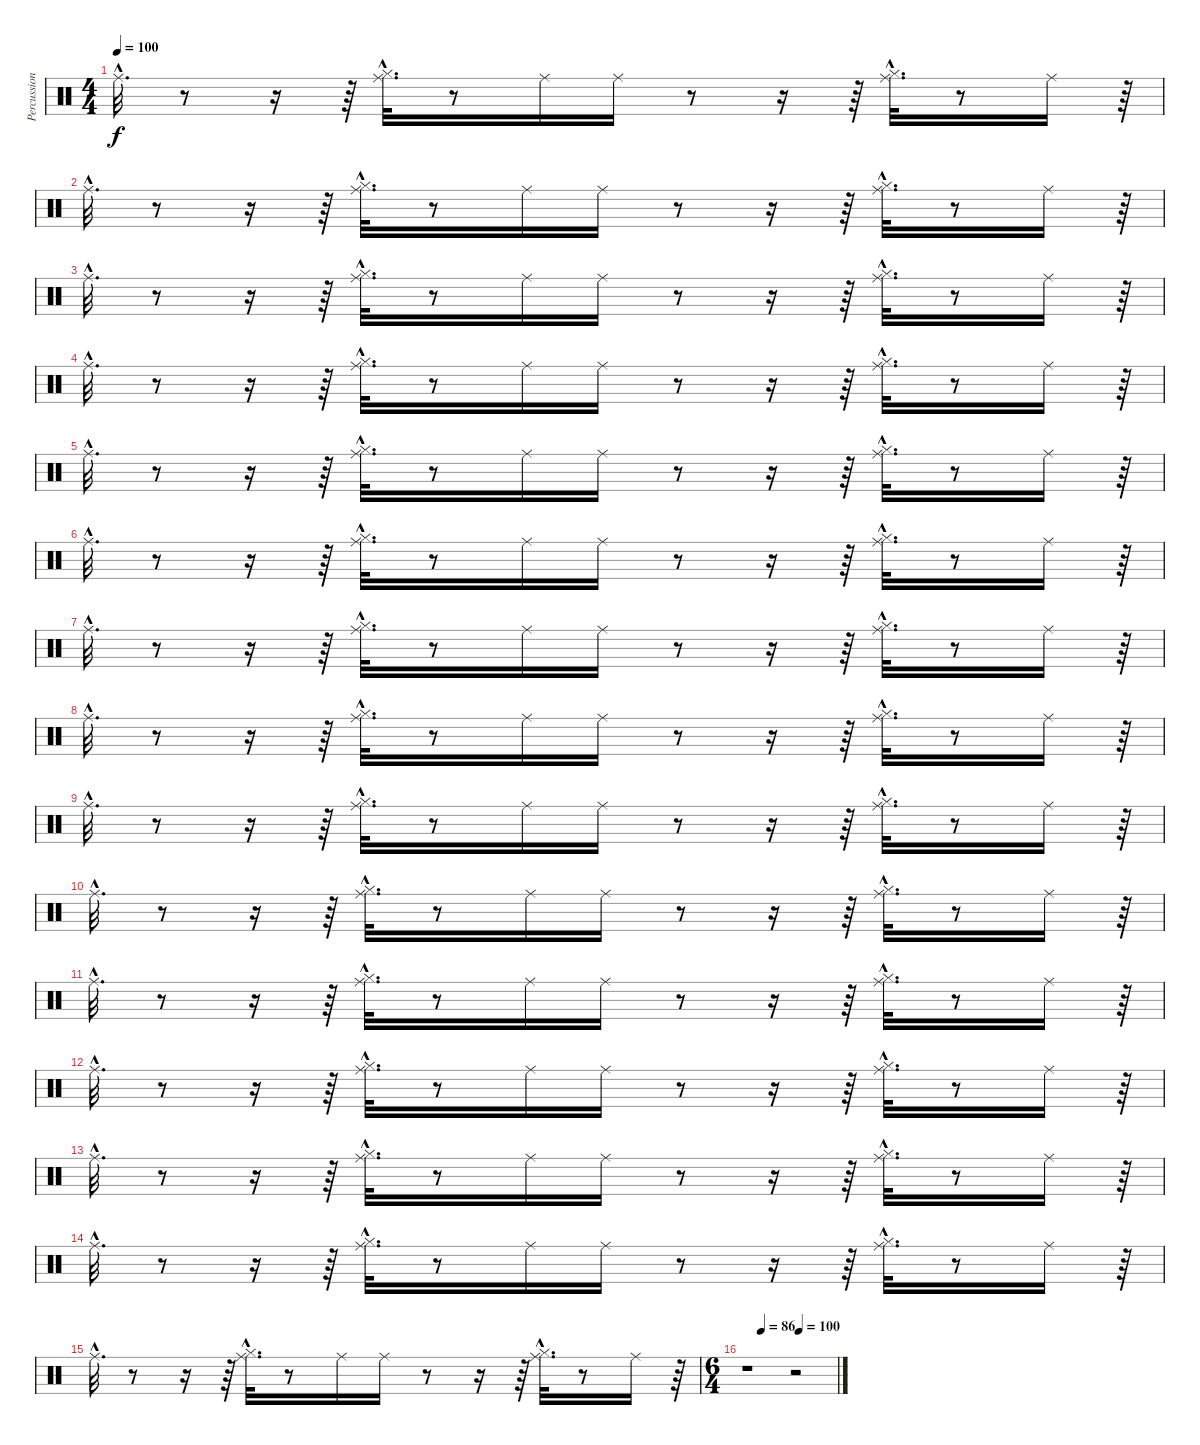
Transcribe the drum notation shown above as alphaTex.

\track ("Percussions" "Percussion") {instrument percussion}
\staff {score}
\articulation defaults
\ts (4 4)
\tempo 100
\clef neutral
\ks c "Ride (middle)"{hac}.32{d dy f}
r.8 r.16 r.64 ("Hi-Hat (closed)"{hac} "Ride (middle)"{hac}).32{d} r.8 "Ride (middle)".16 "Ride (middle)".16 r.8 r.16 r.64 ("Hi-Hat (closed)"{hac} "Ride (middle)"{hac}).32{d} r.8 "Ride (middle)".16 r.64 |
"Ride (middle)"{hac}.32{d} r.8 r.16 r.64 ("Hi-Hat (closed)"{hac} "Ride (middle)"{hac}).32{d} r.8 "Ride (middle)".16 "Ride (middle)".16 r.8 r.16 r.64 ("Hi-Hat (closed)"{hac} "Ride (middle)"{hac}).32{d} r.8 "Ride (middle)".16 r.64 |
"Ride (middle)"{hac}.32{d} r.8 r.16 r.64 ("Hi-Hat (closed)"{hac} "Ride (middle)"{hac}).32{d} r.8 "Ride (middle)".16 "Ride (middle)".16 r.8 r.16 r.64 ("Hi-Hat (closed)"{hac} "Ride (middle)"{hac}).32{d} r.8 "Ride (middle)".16 r.64 |
"Ride (middle)"{hac}.32{d} r.8 r.16 r.64 ("Hi-Hat (closed)"{hac} "Ride (middle)"{hac}).32{d} r.8 "Ride (middle)".16 "Ride (middle)".16 r.8 r.16 r.64 ("Hi-Hat (closed)"{hac} "Ride (middle)"{hac}).32{d} r.8 "Ride (middle)".16 r.64 |
"Ride (middle)"{hac}.32{d} r.8 r.16 r.64 ("Hi-Hat (closed)"{hac} "Ride (middle)"{hac}).32{d} r.8 "Ride (middle)".16 "Ride (middle)".16 r.8 r.16 r.64 ("Hi-Hat (closed)"{hac} "Ride (middle)"{hac}).32{d} r.8 "Ride (middle)".16 r.64 |
"Ride (middle)"{hac}.32{d} r.8 r.16 r.64 ("Hi-Hat (closed)"{hac} "Ride (middle)"{hac}).32{d} r.8 "Ride (middle)".16 "Ride (middle)".16 r.8 r.16 r.64 ("Hi-Hat (closed)"{hac} "Ride (middle)"{hac}).32{d} r.8 "Ride (middle)".16 r.64 |
"Ride (middle)"{hac}.32{d} r.8 r.16 r.64 ("Hi-Hat (closed)"{hac} "Ride (middle)"{hac}).32{d} r.8 "Ride (middle)".16 "Ride (middle)".16 r.8 r.16 r.64 ("Hi-Hat (closed)"{hac} "Ride (middle)"{hac}).32{d} r.8 "Ride (middle)".16 r.64 |
"Ride (middle)"{hac}.32{d} r.8 r.16 r.64 ("Hi-Hat (closed)"{hac} "Ride (middle)"{hac}).32{d} r.8 "Ride (middle)".16 "Ride (middle)".16 r.8 r.16 r.64 ("Hi-Hat (closed)"{hac} "Ride (middle)"{hac}).32{d} r.8 "Ride (middle)".16 r.64 |
"Ride (middle)"{hac}.32{d} r.8 r.16 r.64 ("Hi-Hat (closed)"{hac} "Ride (middle)"{hac}).32{d} r.8 "Ride (middle)".16 "Ride (middle)".16 r.8 r.16 r.64 ("Hi-Hat (closed)"{hac} "Ride (middle)"{hac}).32{d} r.8 "Ride (middle)".16 r.64 |
"Ride (middle)"{hac}.32{d} r.8 r.16 r.64 ("Hi-Hat (closed)"{hac} "Ride (middle)"{hac}).32{d} r.8 "Ride (middle)".16 "Ride (middle)".16 r.8 r.16 r.64 ("Hi-Hat (closed)"{hac} "Ride (middle)"{hac}).32{d} r.8 "Ride (middle)".16 r.64 |
"Ride (middle)"{hac}.32{d} r.8 r.16 r.64 ("Hi-Hat (closed)"{hac} "Ride (middle)"{hac}).32{d} r.8 "Ride (middle)".16 "Ride (middle)".16 r.8 r.16 r.64 ("Hi-Hat (closed)"{hac} "Ride (middle)"{hac}).32{d} r.8 "Ride (middle)".16 r.64 |
"Ride (middle)"{hac}.32{d} r.8 r.16 r.64 ("Hi-Hat (closed)"{hac} "Ride (middle)"{hac}).32{d} r.8 "Ride (middle)".16 "Ride (middle)".16 r.8 r.16 r.64 ("Hi-Hat (closed)"{hac} "Ride (middle)"{hac}).32{d} r.8 "Ride (middle)".16 r.64 |
"Ride (middle)"{hac}.32{d} r.8 r.16 r.64 ("Hi-Hat (closed)"{hac} "Ride (middle)"{hac}).32{d} r.8 "Ride (middle)".16 "Ride (middle)".16 r.8 r.16 r.64 ("Hi-Hat (closed)"{hac} "Ride (middle)"{hac}).32{d} r.8 "Ride (middle)".16 r.64 |
"Ride (middle)"{hac}.32{d} r.8 r.16 r.64 ("Hi-Hat (closed)"{hac} "Ride (middle)"{hac}).32{d} r.8 "Ride (middle)".16 "Ride (middle)".16 r.8 r.16 r.64 ("Hi-Hat (closed)"{hac} "Ride (middle)"{hac}).32{d} r.8 "Ride (middle)".16 r.64 |
"Ride (middle)"{hac}.32{d} r.8 r.16 r.64 ("Hi-Hat (closed)"{hac} "Ride (middle)"{hac}).32{d} r.8 "Ride (middle)".16 "Ride (middle)".16 r.8 r.16 r.64 ("Hi-Hat (closed)"{hac} "Ride (middle)"{hac}).32{d} r.8 "Ride (middle)".16 r.64 |
\ts (6 4)
\tempo (86 0.16666666666666666)
\tempo (100 0.5833333333333334)
r.1 r.2
